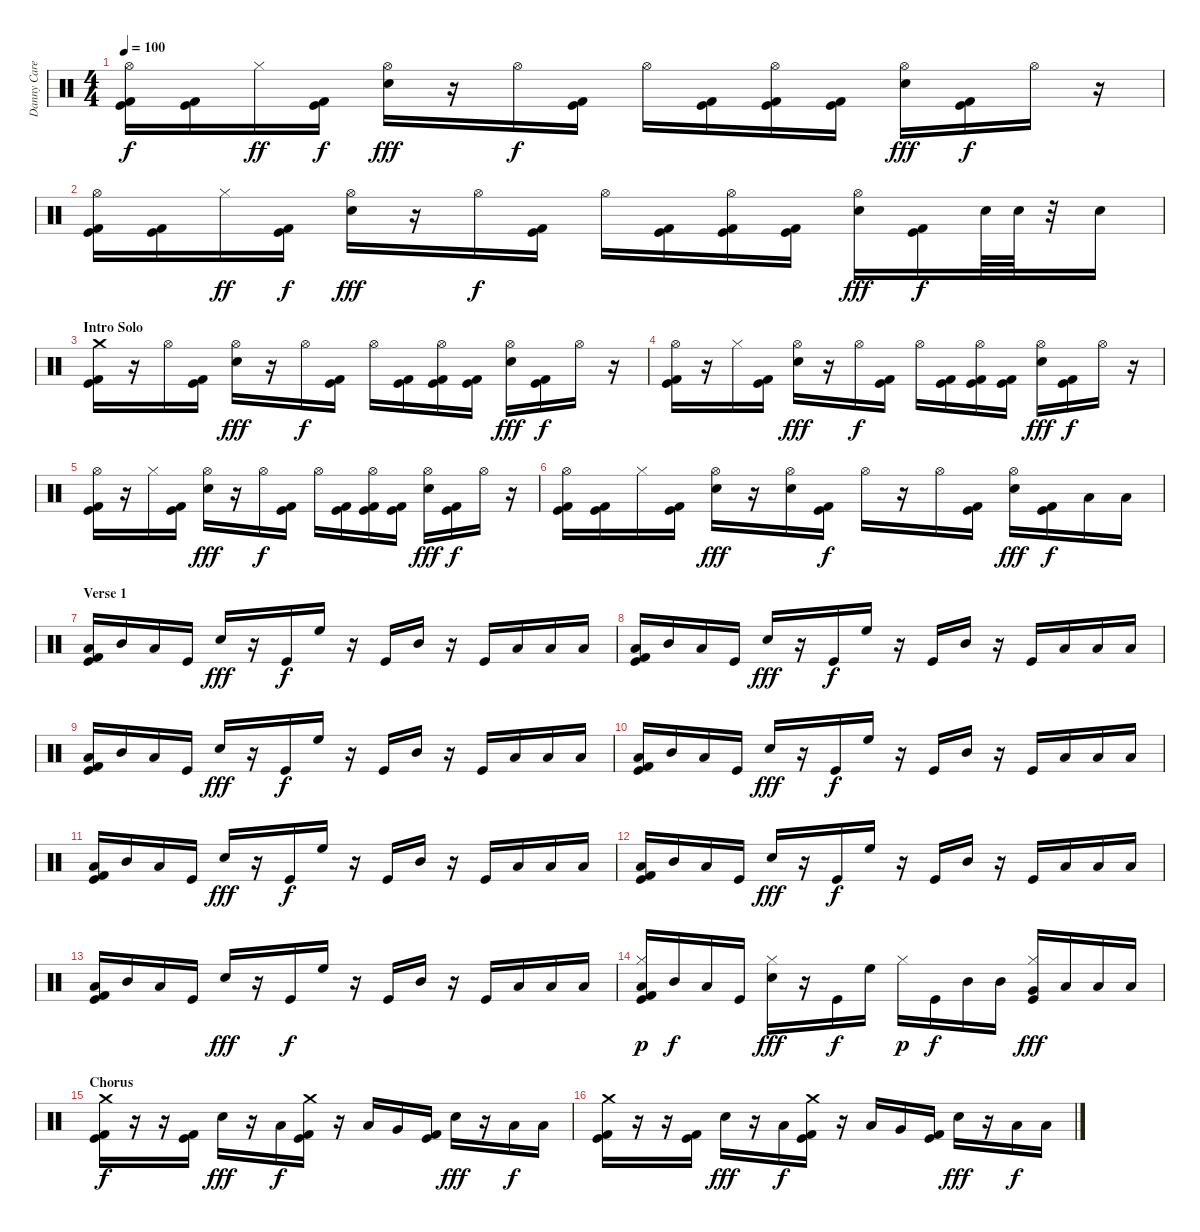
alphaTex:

\track ("Danny Carey - Percussion" "Danny Care") {instrument percussion}
\staff {score}
\articulation defaults
\ts (4 4)
\tempo 100
\clef neutral
\ks c
("Hi-Hat (open)" "Kick (hit)" "Kick (hit) 2").16{dy f} ("Kick (hit)" "Kick (hit) 2").16 "Hi-Hat (closed)".16{dy ff} ("Kick (hit)" "Kick (hit) 2").16{dy f} ("Hi-Hat (open)" "Electric Snare (hit)").16{dy fff} r.16 "Hi-Hat (open)".16{dy f} ("Kick (hit)" "Kick (hit) 2").16 "Hi-Hat (open)".16 ("Kick (hit)" "Kick (hit) 2").16 ("Hi-Hat (open)" "Kick (hit)" "Kick (hit) 2").16 ("Kick (hit)" "Kick (hit) 2").16 ("Hi-Hat (open)" "Electric Snare (hit)").16{dy fff} ("Kick (hit)" "Kick (hit) 2").16{dy f} "Hi-Hat (open)".16 r.16 |
("Hi-Hat (open)" "Kick (hit)" "Kick (hit) 2").16 ("Kick (hit)" "Kick (hit) 2").16 "Hi-Hat (closed)".16{dy ff} ("Kick (hit)" "Kick (hit) 2").16{dy f} ("Hi-Hat (open)" "Electric Snare (hit)").16{dy fff} r.16 "Hi-Hat (open)".16{dy f} ("Kick (hit)" "Kick (hit) 2").16 "Hi-Hat (open)".16 ("Kick (hit)" "Kick (hit) 2").16 ("Hi-Hat (open)" "Kick (hit)" "Kick (hit) 2").16 ("Kick (hit)" "Kick (hit) 2").16 ("Hi-Hat (open)" "Electric Snare (hit)").16{dy fff} ("Kick (hit)" "Kick (hit) 2").16{dy f} "Electric Snare (hit)".64 "Electric Snare (hit)".64 r.32 "Electric Snare (hit)".16 |
\section ("" "Intro Solo")
("Crash medium (hit)" "Kick (hit)" "Kick (hit) 2").16 r.16 "Hi-Hat (open)".16 ("Kick (hit)" "Kick (hit) 2").16 ("Hi-Hat (open)" "Electric Snare (hit)").16{dy fff} r.16 "Hi-Hat (open)".16{dy f} ("Kick (hit)" "Kick (hit) 2").16 "Hi-Hat (open)".16 ("Kick (hit)" "Kick (hit) 2").16 ("Hi-Hat (open)" "Kick (hit)" "Kick (hit) 2").16 ("Kick (hit)" "Kick (hit) 2").16 ("Hi-Hat (open)" "Electric Snare (hit)").16{dy fff} ("Kick (hit)" "Kick (hit) 2").16{dy f} "Hi-Hat (open)".16 r.16 |
("Hi-Hat (open)" "Kick (hit)" "Kick (hit) 2").16 r.16 "Hi-Hat (closed)".16 ("Kick (hit)" "Kick (hit) 2").16 ("Hi-Hat (open)" "Electric Snare (hit)").16{dy fff} r.16 "Hi-Hat (open)".16{dy f} ("Kick (hit)" "Kick (hit) 2").16 "Hi-Hat (open)".16 ("Kick (hit)" "Kick (hit) 2").16 ("Hi-Hat (open)" "Kick (hit)" "Kick (hit) 2").16 ("Kick (hit)" "Kick (hit) 2").16 ("Hi-Hat (open)" "Electric Snare (hit)").16{dy fff} ("Kick (hit)" "Kick (hit) 2").16{dy f} "Hi-Hat (open)".16 r.16 |
("Hi-Hat (open)" "Kick (hit)" "Kick (hit) 2").16 r.16 "Hi-Hat (closed)".16 ("Kick (hit)" "Kick (hit) 2").16 ("Hi-Hat (open)" "Electric Snare (hit)").16{dy fff} r.16 "Hi-Hat (open)".16{dy f} ("Kick (hit)" "Kick (hit) 2").16 "Hi-Hat (open)".16 ("Kick (hit)" "Kick (hit) 2").16 ("Hi-Hat (open)" "Kick (hit)" "Kick (hit) 2").16 ("Kick (hit)" "Kick (hit) 2").16 ("Hi-Hat (open)" "Electric Snare (hit)").16{dy fff} ("Kick (hit)" "Kick (hit) 2").16{dy f} "Hi-Hat (open)".16 r.16 |
("Hi-Hat (open)" "Kick (hit)" "Kick (hit) 2").16 ("Kick (hit)" "Kick (hit) 2").16 "Hi-Hat (closed)".16 ("Kick (hit)" "Kick (hit) 2").16 ("Hi-Hat (open)" "Electric Snare (hit)").16{dy fff} r.16 ("Hi-Hat (open)" "Electric Snare (hit)").16 ("Kick (hit)" "Kick (hit) 2").16{dy f} "Hi-Hat (open)".16 r.16 "Hi-Hat (open)".16 ("Kick (hit)" "Kick (hit) 2").16 ("Hi-Hat (open)" "Electric Snare (hit)").16{dy fff} ("Kick (hit)" "Kick (hit) 2").16{dy f} "Low Tom (hit)".16 "Low Tom (hit)".16 |
\section ("" "Verse 1")
("Low Tom (hit)" "Kick (hit)" "Kick (hit) 2").16 "Mid Tom (hit)".16 "Low Floor Tom (hit)".16 "Kick (hit)".16 "Electric Snare (hit)".16{dy fff} r.16 "Kick (hit)".16{dy f} "High Floor Tom (hit)".16 r.16 "Kick (hit)".16 "Mid Tom (hit)".16 r.16 "Kick (hit)".16 "Low Tom (hit)".16 "Low Tom (hit)".16 "Low Tom (hit)".16 |
("Low Tom (hit)" "Kick (hit)" "Kick (hit) 2").16 "Mid Tom (hit)".16 "Low Floor Tom (hit)".16 "Kick (hit)".16 "Electric Snare (hit)".16{dy fff} r.16 "Kick (hit)".16{dy f} "High Floor Tom (hit)".16 r.16 "Kick (hit)".16 "Mid Tom (hit)".16 r.16 "Kick (hit)".16 "Low Tom (hit)".16 "Low Tom (hit)".16 "Low Tom (hit)".16 |
("Low Tom (hit)" "Kick (hit)" "Kick (hit) 2").16 "Mid Tom (hit)".16 "Low Floor Tom (hit)".16 "Kick (hit)".16 "Electric Snare (hit)".16{dy fff} r.16 "Kick (hit)".16{dy f} "High Floor Tom (hit)".16 r.16 "Kick (hit)".16 "Mid Tom (hit)".16 r.16 "Kick (hit)".16 "Low Tom (hit)".16 "Low Tom (hit)".16 "Low Tom (hit)".16 |
("Low Tom (hit)" "Kick (hit)" "Kick (hit) 2").16 "Mid Tom (hit)".16 "Low Floor Tom (hit)".16 "Kick (hit)".16 "Electric Snare (hit)".16{dy fff} r.16 "Kick (hit)".16{dy f} "High Floor Tom (hit)".16 r.16 "Kick (hit)".16 "Mid Tom (hit)".16 r.16 "Kick (hit)".16 "Low Tom (hit)".16 "Low Tom (hit)".16 "Low Tom (hit)".16 |
("Low Tom (hit)" "Kick (hit)" "Kick (hit) 2").16 "Mid Tom (hit)".16 "Low Floor Tom (hit)".16 "Kick (hit)".16 "Electric Snare (hit)".16{dy fff} r.16 "Kick (hit)".16{dy f} "High Floor Tom (hit)".16 r.16 "Kick (hit)".16 "Mid Tom (hit)".16 r.16 "Kick (hit)".16 "Low Tom (hit)".16 "Low Tom (hit)".16 "Low Tom (hit)".16 |
("Low Tom (hit)" "Kick (hit)" "Kick (hit) 2").16 "Mid Tom (hit)".16 "Low Floor Tom (hit)".16 "Kick (hit)".16 "Electric Snare (hit)".16{dy fff} r.16 "Kick (hit)".16{dy f} "High Floor Tom (hit)".16 r.16 "Kick (hit)".16 "Mid Tom (hit)".16 r.16 "Kick (hit)".16 "Low Tom (hit)".16 "Low Tom (hit)".16 "Low Tom (hit)".16 |
("Low Tom (hit)" "Kick (hit)" "Kick (hit) 2").16 "Mid Tom (hit)".16 "Low Floor Tom (hit)".16 "Kick (hit)".16 "Electric Snare (hit)".16{dy fff} r.16 "Kick (hit)".16{dy f} "High Floor Tom (hit)".16 r.16 "Kick (hit)".16 "Mid Tom (hit)".16 r.16 "Kick (hit)".16 "Low Tom (hit)".16 "Low Tom (hit)".16 "Low Tom (hit)".16 |
("Hi-Hat (closed)" "Low Tom (hit)" "Kick (hit)" "Kick (hit) 2").16{dy p} "Mid Tom (hit)".16{dy f} "Low Floor Tom (hit)".16 "Kick (hit)".16 ("Hi-Hat (closed)" "Electric Snare (hit)").16{dy fff} r.16 "Kick (hit)".16{dy f} "High Floor Tom (hit)".16 "Hi-Hat (closed)".16{dy p} "Kick (hit)".16{dy f} "Mid Tom (hit)".16 "Mid Tom (hit)".16 ("Hi-Hat (closed)" "Very Low Tom (hit)" "Kick (hit)").16{dy fff} "Low Tom (hit)".16 "Low Tom (hit)".16 "Low Tom (hit)".16 |
\section ("" "Chorus")
("Crash medium (hit)" "Kick (hit)" "Kick (hit) 2").16{dy f} r.16 r.16 ("Kick (hit)" "Kick (hit) 2").16 "Electric Snare (hit)".16{dy fff} r.16 "Low Tom (hit)".16{dy f} ("Crash medium (hit)" "Kick (hit)" "Kick (hit) 2").16 r.16 "Low Tom (hit)".16 "Very Low Tom (hit)".16 ("Kick (hit)" "Kick (hit) 2").16 "Electric Snare (hit)".16{dy fff} r.16 "Low Tom (hit)".16{dy f} "Low Tom (hit)".16 |
("Crash medium (hit)" "Kick (hit)" "Kick (hit) 2").16 r.16 r.16 ("Kick (hit)" "Kick (hit) 2").16 "Electric Snare (hit)".16{dy fff} r.16 "Low Tom (hit)".16{dy f} ("Crash medium (hit)" "Kick (hit)" "Kick (hit) 2").16 r.16 "Low Tom (hit)".16 "Very Low Tom (hit)".16 ("Kick (hit)" "Kick (hit) 2").16 "Electric Snare (hit)".16{dy fff} r.16 "Low Tom (hit)".16{dy f} "Low Tom (hit)".16
